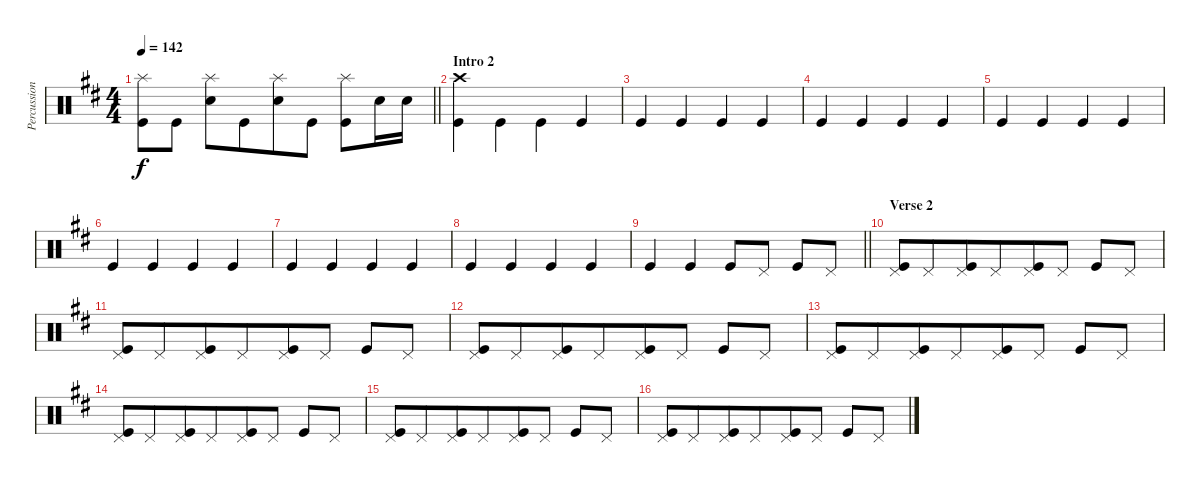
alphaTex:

\track ("Percussion" "Percussion") {instrument percussion}
\staff {score}
\articulation defaults
\ts (4 4)
\tempo 142
\clef neutral
\barLineRight lightlight
\ks d
("Kick (hit)" "Splash (hit)").8{dy f} "Kick (hit)".8 ("Snare (hit) 2" "Splash (hit)").8 "Kick (hit)".8{beam merge} ("Snare (hit) 2" "Splash (hit)").8{beam merge} "Kick (hit)".8 ("Kick (hit)" "Splash (hit)").8 "Snare (hit) 2".16 "Snare (hit) 2".16 |
\section ("" "Intro 2")
("Kick (hit)" "Crash high (hit)").4{beam merge} "Kick (hit)".4{beam merge} "Kick (hit)".4 "Kick (hit)".4 |
"Kick (hit)".4 "Kick (hit)".4 "Kick (hit)".4 "Kick (hit)".4 |
"Kick (hit)".4 "Kick (hit)".4 "Kick (hit)".4 "Kick (hit)".4 |
"Kick (hit)".4 "Kick (hit)".4 "Kick (hit)".4 "Kick (hit)".4 |
"Kick (hit)".4 "Kick (hit)".4 "Kick (hit)".4 "Kick (hit)".4 |
"Kick (hit)".4 "Kick (hit)".4 "Kick (hit)".4 "Kick (hit)".4 |
"Kick (hit)".4 "Kick (hit)".4 "Kick (hit)".4 "Kick (hit)".4 |
\barLineRight lightlight "Kick (hit)".4 "Kick (hit)".4{beam merge} "Kick (hit)".8 "Pedal Hi-Hat (hit)".8 "Kick (hit)".8 "Pedal Hi-Hat (hit)".8
|
\section ("" "Verse 2")
("Kick (hit)" "Pedal Hi-Hat (hit)").8{beam merge} "Pedal Hi-Hat (hit)".8{beam merge} ("Kick (hit)" "Pedal Hi-Hat (hit)").8 "Pedal Hi-Hat (hit)".8{beam merge} ("Kick (hit)" "Pedal Hi-Hat (hit)").8{beam merge} "Pedal Hi-Hat (hit)".8 "Kick (hit)".8{beam merge} "Pedal Hi-Hat (hit)".8 |
("Kick (hit)" "Pedal Hi-Hat (hit)").8{beam merge} "Pedal Hi-Hat (hit)".8{beam merge} ("Kick (hit)" "Pedal Hi-Hat (hit)").8 "Pedal Hi-Hat (hit)".8{beam merge} ("Kick (hit)" "Pedal Hi-Hat (hit)").8{beam merge} "Pedal Hi-Hat (hit)".8 "Kick (hit)".8{beam merge} "Pedal Hi-Hat (hit)".8 |
("Kick (hit)" "Pedal Hi-Hat (hit)").8{beam merge} "Pedal Hi-Hat (hit)".8{beam merge} ("Kick (hit)" "Pedal Hi-Hat (hit)").8 "Pedal Hi-Hat (hit)".8{beam merge} ("Kick (hit)" "Pedal Hi-Hat (hit)").8{beam merge} "Pedal Hi-Hat (hit)".8 "Kick (hit)".8{beam merge} "Pedal Hi-Hat (hit)".8 |
("Kick (hit)" "Pedal Hi-Hat (hit)").8{beam merge} "Pedal Hi-Hat (hit)".8{beam merge} ("Kick (hit)" "Pedal Hi-Hat (hit)").8 "Pedal Hi-Hat (hit)".8{beam merge} ("Kick (hit)" "Pedal Hi-Hat (hit)").8{beam merge} "Pedal Hi-Hat (hit)".8 "Kick (hit)".8{beam merge} "Pedal Hi-Hat (hit)".8 |
("Kick (hit)" "Pedal Hi-Hat (hit)").8{beam merge} "Pedal Hi-Hat (hit)".8{beam merge} ("Kick (hit)" "Pedal Hi-Hat (hit)").8 "Pedal Hi-Hat (hit)".8{beam merge} ("Kick (hit)" "Pedal Hi-Hat (hit)").8{beam merge} "Pedal Hi-Hat (hit)".8 "Kick (hit)".8{beam merge} "Pedal Hi-Hat (hit)".8 |
("Kick (hit)" "Pedal Hi-Hat (hit)").8{beam merge} "Pedal Hi-Hat (hit)".8{beam merge} ("Kick (hit)" "Pedal Hi-Hat (hit)").8 "Pedal Hi-Hat (hit)".8{beam merge} ("Kick (hit)" "Pedal Hi-Hat (hit)").8{beam merge} "Pedal Hi-Hat (hit)".8 "Kick (hit)".8{beam merge} "Pedal Hi-Hat (hit)".8 |
("Kick (hit)" "Pedal Hi-Hat (hit)").8{beam merge} "Pedal Hi-Hat (hit)".8{beam merge} ("Kick (hit)" "Pedal Hi-Hat (hit)").8 "Pedal Hi-Hat (hit)".8{beam merge} ("Kick (hit)" "Pedal Hi-Hat (hit)").8{beam merge} "Pedal Hi-Hat (hit)".8 "Kick (hit)".8{beam merge} "Pedal Hi-Hat (hit)".8
